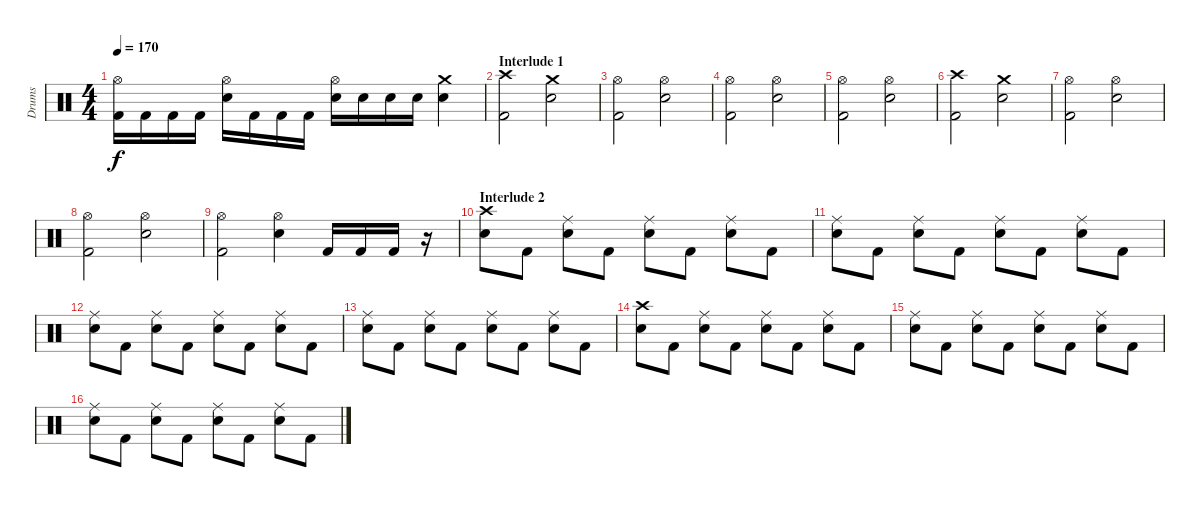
\track ("Drums" "Drums") {instrument percussion}
\staff {score}
\articulation defaults
\ts (4 4)
\tempo 170
\clef neutral
\ks c
("Hi-Hat (open)" "Kick (hit) 2").16{dy f} "Kick (hit) 2".16 "Kick (hit) 2".16 "Kick (hit) 2".16 ("Hi-Hat (open)" "Snare (hit) 2").16 "Kick (hit) 2".16 "Kick (hit) 2".16 "Kick (hit) 2".16 ("Hi-Hat (open)" "Snare (hit) 2").16 "Snare (hit) 2".16 "Snare (hit) 2".16 "Snare (hit) 2".16 ("Crash medium (hit)" "Snare (hit) 2").4 |
\section ("" "Interlude 1")
("Crash high (hit)" "Kick (hit) 2").2 ("Crash medium (hit)" "Snare (hit) 2").2 |
("Hi-Hat (open)" "Kick (hit) 2").2 ("Hi-Hat (open)" "Snare (hit) 2").2 |
("Hi-Hat (open)" "Kick (hit) 2").2 ("Hi-Hat (open)" "Snare (hit) 2").2 |
("Hi-Hat (open)" "Kick (hit) 2").2 ("Hi-Hat (open)" "Snare (hit) 2").2 |
("Crash high (hit)" "Kick (hit) 2").2 ("Crash medium (hit)" "Snare (hit) 2").2 |
("Hi-Hat (open)" "Kick (hit) 2").2 ("Hi-Hat (open)" "Snare (hit) 2").2 |
("Hi-Hat (open)" "Kick (hit) 2").2 ("Hi-Hat (open)" "Snare (hit) 2").2 |
("Hi-Hat (open)" "Kick (hit) 2").2 ("Hi-Hat (open)" "Snare (hit) 2").4 "Kick (hit) 2".16 "Kick (hit) 2".16 "Kick (hit) 2".16 r.16 |
\section ("" "Interlude 2")
("Crash high (hit)" "Electric Snare (hit)").8 "Kick (hit) 2".8 ("Ride (middle)" "Electric Snare (hit)").8 "Kick (hit) 2".8 ("Ride (middle)" "Electric Snare (hit)").8 "Kick (hit) 2".8 ("Ride (middle)" "Electric Snare (hit)").8 "Kick (hit) 2".8 |
("Ride (middle)" "Electric Snare (hit)").8 "Kick (hit) 2".8 ("Ride (middle)" "Electric Snare (hit)").8 "Kick (hit) 2".8 ("Ride (middle)" "Electric Snare (hit)").8 "Kick (hit) 2".8 ("Ride (middle)" "Electric Snare (hit)").8 "Kick (hit) 2".8 |
("Ride (middle)" "Electric Snare (hit)").8 "Kick (hit) 2".8 ("Ride (middle)" "Electric Snare (hit)").8 "Kick (hit) 2".8 ("Ride (middle)" "Electric Snare (hit)").8 "Kick (hit) 2".8 ("Ride (middle)" "Electric Snare (hit)").8 "Kick (hit) 2".8 |
("Ride (middle)" "Electric Snare (hit)").8 "Kick (hit) 2".8 ("Ride (middle)" "Electric Snare (hit)").8 "Kick (hit) 2".8 ("Ride (middle)" "Electric Snare (hit)").8 "Kick (hit) 2".8 ("Ride (middle)" "Electric Snare (hit)").8 "Kick (hit) 2".8 |
("Crash high (hit)" "Electric Snare (hit)").8 "Kick (hit) 2".8 ("Ride (middle)" "Electric Snare (hit)").8 "Kick (hit) 2".8 ("Ride (middle)" "Electric Snare (hit)").8 "Kick (hit) 2".8 ("Ride (middle)" "Electric Snare (hit)").8 "Kick (hit) 2".8 |
("Ride (middle)" "Electric Snare (hit)").8 "Kick (hit) 2".8 ("Ride (middle)" "Electric Snare (hit)").8 "Kick (hit) 2".8 ("Ride (middle)" "Electric Snare (hit)").8 "Kick (hit) 2".8 ("Ride (middle)" "Electric Snare (hit)").8 "Kick (hit) 2".8 |
("Ride (middle)" "Electric Snare (hit)").8 "Kick (hit) 2".8 ("Ride (middle)" "Electric Snare (hit)").8 "Kick (hit) 2".8 ("Ride (middle)" "Electric Snare (hit)").8 "Kick (hit) 2".8 ("Ride (middle)" "Electric Snare (hit)").8 "Kick (hit) 2".8
